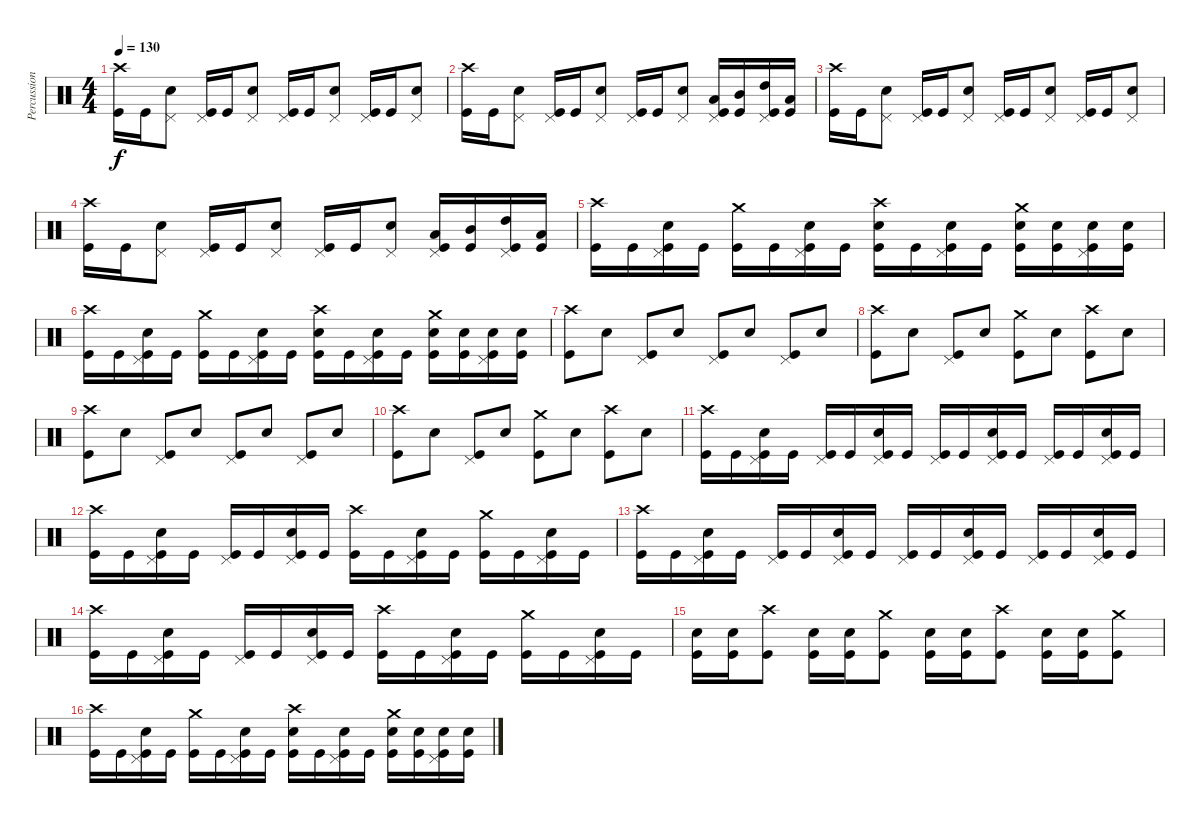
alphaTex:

\track ("Percussion" "Percussion") {instrument percussion}
\staff {score}
\articulation defaults
\ts (4 4)
\tempo 130
\clef neutral
\ks c
("Crash high (hit)" "Kick (hit)").16{dy f} "Kick (hit)".16 ("Pedal Hi-Hat (hit)" "Snare (hit) 2").8 ("Pedal Hi-Hat (hit)" "Kick (hit)").16 "Kick (hit)".16 ("Pedal Hi-Hat (hit)" "Snare (hit) 2").8 ("Pedal Hi-Hat (hit)" "Kick (hit)").16 "Kick (hit)".16 ("Pedal Hi-Hat (hit)" "Snare (hit) 2").8 ("Pedal Hi-Hat (hit)" "Kick (hit)").16 "Kick (hit)".16 ("Pedal Hi-Hat (hit)" "Snare (hit) 2").8 |
("Crash high (hit)" "Kick (hit)").16 "Kick (hit)".16 ("Pedal Hi-Hat (hit)" "Snare (hit) 2").8 ("Pedal Hi-Hat (hit)" "Kick (hit)").16 "Kick (hit)".16 ("Pedal Hi-Hat (hit)" "Snare (hit) 2").8 ("Pedal Hi-Hat (hit)" "Kick (hit)").16 "Kick (hit)".16 ("Pedal Hi-Hat (hit)" "Snare (hit) 2").8 ("Low Tom (hit)" "Pedal Hi-Hat (hit)" "Kick (hit)").16 ("Mid Tom (hit)" "Kick (hit)").16 ("High Tom (hit)" "Pedal Hi-Hat (hit)" "Kick (hit)").16 ("Low Tom (hit)" "Kick (hit)").16 |
("Crash high (hit)" "Kick (hit)").16 "Kick (hit)".16 ("Pedal Hi-Hat (hit)" "Snare (hit) 2").8 ("Pedal Hi-Hat (hit)" "Kick (hit)").16 "Kick (hit)".16 ("Pedal Hi-Hat (hit)" "Snare (hit) 2").8 ("Pedal Hi-Hat (hit)" "Kick (hit)").16 "Kick (hit)".16 ("Pedal Hi-Hat (hit)" "Snare (hit) 2").8 ("Pedal Hi-Hat (hit)" "Kick (hit)").16 "Kick (hit)".16 ("Pedal Hi-Hat (hit)" "Snare (hit) 2").8 |
("Crash high (hit)" "Kick (hit)").16 "Kick (hit)".16 ("Pedal Hi-Hat (hit)" "Snare (hit) 2").8 ("Pedal Hi-Hat (hit)" "Kick (hit)").16 "Kick (hit)".16 ("Pedal Hi-Hat (hit)" "Snare (hit) 2").8 ("Pedal Hi-Hat (hit)" "Kick (hit)").16 "Kick (hit)".16 ("Pedal Hi-Hat (hit)" "Snare (hit) 2").8 ("Low Tom (hit)" "Pedal Hi-Hat (hit)" "Kick (hit)").16 ("Mid Tom (hit)" "Kick (hit)").16 ("High Tom (hit)" "Pedal Hi-Hat (hit)" "Kick (hit)").16 ("Low Tom (hit)" "Kick (hit)").16 |
("Crash high (hit)" "Kick (hit)").16 "Kick (hit)".16 ("Pedal Hi-Hat (hit)" "Snare (hit) 2" "Kick (hit)").16 "Kick (hit)".16 ("Crash medium (hit)" "Kick (hit)").16 "Kick (hit)".16 ("Pedal Hi-Hat (hit)" "Snare (hit) 2" "Kick (hit)").16 "Kick (hit)".16 ("Crash high (hit)" "Snare (hit) 2" "Kick (hit)").16 "Kick (hit)".16 ("Pedal Hi-Hat (hit)" "Snare (hit) 2" "Kick (hit)").16 "Kick (hit)".16 ("Crash medium (hit)" "Snare (hit) 2" "Kick (hit)").16 ("Snare (hit) 2" "Kick (hit)").16 ("Pedal Hi-Hat (hit)" "Snare (hit) 2" "Kick (hit)").16 ("Snare (hit) 2" "Kick (hit)").16 |
("Crash high (hit)" "Kick (hit)").16 "Kick (hit)".16 ("Pedal Hi-Hat (hit)" "Snare (hit) 2" "Kick (hit)").16 "Kick (hit)".16 ("Crash medium (hit)" "Kick (hit)").16 "Kick (hit)".16 ("Pedal Hi-Hat (hit)" "Snare (hit) 2" "Kick (hit)").16 "Kick (hit)".16 ("Crash high (hit)" "Snare (hit) 2" "Kick (hit)").16 "Kick (hit)".16 ("Pedal Hi-Hat (hit)" "Snare (hit) 2" "Kick (hit)").16 "Kick (hit)".16 ("Crash medium (hit)" "Snare (hit) 2" "Kick (hit)").16 ("Snare (hit) 2" "Kick (hit)").16 ("Pedal Hi-Hat (hit)" "Snare (hit) 2" "Kick (hit)").16 ("Snare (hit) 2" "Kick (hit)").16 |
("Crash high (hit)" "Kick (hit)").8 "Snare (hit) 2".8 ("Pedal Hi-Hat (hit)" "Kick (hit)").8 "Snare (hit) 2".8 ("Pedal Hi-Hat (hit)" "Kick (hit)").8 "Snare (hit) 2".8 ("Pedal Hi-Hat (hit)" "Kick (hit)").8 "Snare (hit) 2".8 |
("Crash high (hit)" "Kick (hit)").8 "Snare (hit) 2".8 ("Pedal Hi-Hat (hit)" "Kick (hit)").8 "Snare (hit) 2".8 ("Crash medium (hit)" "Kick (hit)").8 "Snare (hit) 2".8 ("Crash high (hit)" "Kick (hit)").8 "Snare (hit) 2".8 |
("Crash high (hit)" "Kick (hit)").8 "Snare (hit) 2".8 ("Pedal Hi-Hat (hit)" "Kick (hit)").8 "Snare (hit) 2".8 ("Pedal Hi-Hat (hit)" "Kick (hit)").8 "Snare (hit) 2".8 ("Pedal Hi-Hat (hit)" "Kick (hit)").8 "Snare (hit) 2".8 |
("Crash high (hit)" "Kick (hit)").8 "Snare (hit) 2".8 ("Pedal Hi-Hat (hit)" "Kick (hit)").8 "Snare (hit) 2".8 ("Crash medium (hit)" "Kick (hit)").8 "Snare (hit) 2".8 ("Crash high (hit)" "Kick (hit)").8 "Snare (hit) 2".8 |
("Crash high (hit)" "Kick (hit)").16 "Kick (hit)".16 ("Pedal Hi-Hat (hit)" "Snare (hit) 2" "Kick (hit)").16 "Kick (hit)".16 ("Pedal Hi-Hat (hit)" "Kick (hit)").16 "Kick (hit)".16 ("Pedal Hi-Hat (hit)" "Snare (hit) 2" "Kick (hit)").16 "Kick (hit)".16 ("Pedal Hi-Hat (hit)" "Kick (hit)").16 "Kick (hit)".16 ("Pedal Hi-Hat (hit)" "Snare (hit) 2" "Kick (hit)").16 "Kick (hit)".16 ("Pedal Hi-Hat (hit)" "Kick (hit)").16 "Kick (hit)".16 ("Pedal Hi-Hat (hit)" "Snare (hit) 2" "Kick (hit)").16 "Kick (hit)".16 |
("Crash high (hit)" "Kick (hit)").16 "Kick (hit)".16 ("Pedal Hi-Hat (hit)" "Snare (hit) 2" "Kick (hit)").16 "Kick (hit)".16 ("Pedal Hi-Hat (hit)" "Kick (hit)").16 "Kick (hit)".16 ("Pedal Hi-Hat (hit)" "Snare (hit) 2" "Kick (hit)").16 "Kick (hit)".16 ("Crash high (hit)" "Kick (hit)").16 "Kick (hit)".16 ("Pedal Hi-Hat (hit)" "Snare (hit) 2" "Kick (hit)").16 "Kick (hit)".16 ("Crash medium (hit)" "Kick (hit)").16 "Kick (hit)".16 ("Pedal Hi-Hat (hit)" "Snare (hit) 2" "Kick (hit)").16 "Kick (hit)".16 |
("Crash high (hit)" "Kick (hit)").16 "Kick (hit)".16 ("Pedal Hi-Hat (hit)" "Snare (hit) 2" "Kick (hit)").16 "Kick (hit)".16 ("Pedal Hi-Hat (hit)" "Kick (hit)").16 "Kick (hit)".16 ("Pedal Hi-Hat (hit)" "Snare (hit) 2" "Kick (hit)").16 "Kick (hit)".16 ("Pedal Hi-Hat (hit)" "Kick (hit)").16 "Kick (hit)".16 ("Pedal Hi-Hat (hit)" "Snare (hit) 2" "Kick (hit)").16 "Kick (hit)".16 ("Pedal Hi-Hat (hit)" "Kick (hit)").16 "Kick (hit)".16 ("Pedal Hi-Hat (hit)" "Snare (hit) 2" "Kick (hit)").16 "Kick (hit)".16 |
("Crash high (hit)" "Kick (hit)").16 "Kick (hit)".16 ("Pedal Hi-Hat (hit)" "Snare (hit) 2" "Kick (hit)").16 "Kick (hit)".16 ("Pedal Hi-Hat (hit)" "Kick (hit)").16 "Kick (hit)".16 ("Pedal Hi-Hat (hit)" "Snare (hit) 2" "Kick (hit)").16 "Kick (hit)".16 ("Crash high (hit)" "Kick (hit)").16 "Kick (hit)".16 ("Pedal Hi-Hat (hit)" "Snare (hit) 2" "Kick (hit)").16 "Kick (hit)".16 ("Crash medium (hit)" "Kick (hit)").16 "Kick (hit)".16 ("Pedal Hi-Hat (hit)" "Snare (hit) 2" "Kick (hit)").16 "Kick (hit)".16 |
("Snare (hit) 2" "Kick (hit)").16 ("Snare (hit) 2" "Kick (hit)").16 ("Crash high (hit)" "Kick (hit)").8 ("Snare (hit) 2" "Kick (hit)").16 ("Snare (hit) 2" "Kick (hit)").16 ("Crash medium (hit)" "Kick (hit)").8 ("Snare (hit) 2" "Kick (hit)").16 ("Snare (hit) 2" "Kick (hit)").16 ("Crash high (hit)" "Kick (hit)").8 ("Snare (hit) 2" "Kick (hit)").16 ("Snare (hit) 2" "Kick (hit)").16 ("Crash medium (hit)" "Kick (hit)").8 |
("Crash high (hit)" "Kick (hit)").16 "Kick (hit)".16 ("Pedal Hi-Hat (hit)" "Snare (hit) 2" "Kick (hit)").16 "Kick (hit)".16 ("Crash medium (hit)" "Kick (hit)").16 "Kick (hit)".16 ("Pedal Hi-Hat (hit)" "Snare (hit) 2" "Kick (hit)").16 "Kick (hit)".16 ("Crash high (hit)" "Snare (hit) 2" "Kick (hit)").16 "Kick (hit)".16 ("Pedal Hi-Hat (hit)" "Snare (hit) 2" "Kick (hit)").16 "Kick (hit)".16 ("Crash medium (hit)" "Snare (hit) 2" "Kick (hit)").16 ("Snare (hit) 2" "Kick (hit)").16 ("Pedal Hi-Hat (hit)" "Snare (hit) 2" "Kick (hit)").16 ("Snare (hit) 2" "Kick (hit)").16
